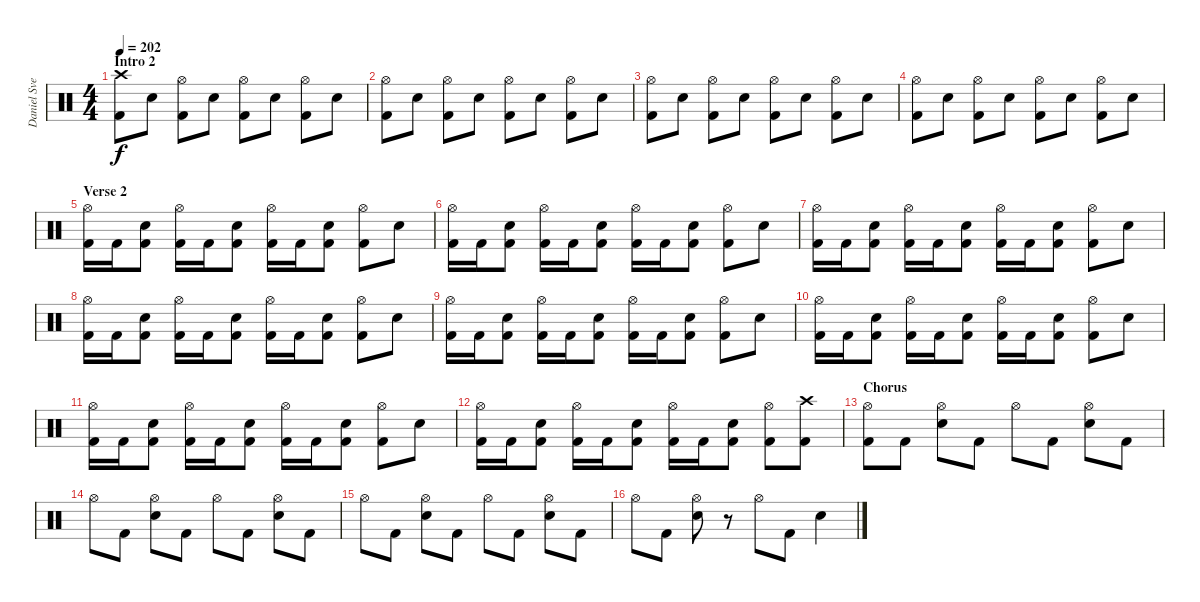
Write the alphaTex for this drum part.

\track ("Daniel Svensson" "Daniel Sve") {instrument percussion}
\staff {score}
\articulation defaults
\ts (4 4)
\section ("" "Intro 2")
\tempo 202
\clef neutral
\ks c
("Crash high (hit)" "Kick (hit) 2").8{dy f} "Electric Snare (hit)".8 ("Hi-Hat (open)" "Kick (hit) 2").8 "Electric Snare (hit)".8 ("Hi-Hat (open)" "Kick (hit) 2").8 "Electric Snare (hit)".8 ("Hi-Hat (open)" "Kick (hit) 2").8 "Electric Snare (hit)".8 |
("Hi-Hat (open)" "Kick (hit) 2").8 "Electric Snare (hit)".8 ("Hi-Hat (open)" "Kick (hit) 2").8 "Electric Snare (hit)".8 ("Hi-Hat (open)" "Kick (hit) 2").8 "Electric Snare (hit)".8 ("Hi-Hat (open)" "Kick (hit) 2").8 "Electric Snare (hit)".8 |
("Hi-Hat (open)" "Kick (hit) 2").8 "Electric Snare (hit)".8 ("Hi-Hat (open)" "Kick (hit) 2").8 "Electric Snare (hit)".8 ("Hi-Hat (open)" "Kick (hit) 2").8 "Electric Snare (hit)".8 ("Hi-Hat (open)" "Kick (hit) 2").8 "Electric Snare (hit)".8 |
("Hi-Hat (open)" "Kick (hit) 2").8 "Electric Snare (hit)".8 ("Hi-Hat (open)" "Kick (hit) 2").8 "Electric Snare (hit)".8 ("Hi-Hat (open)" "Kick (hit) 2").8 "Electric Snare (hit)".8 ("Hi-Hat (open)" "Kick (hit) 2").8 "Electric Snare (hit)".8 |
\section ("" "Verse 2")
("Hi-Hat (open)" "Kick (hit) 2").16 "Kick (hit) 2".16 ("Electric Snare (hit)" "Kick (hit) 2").8 ("Hi-Hat (open)" "Kick (hit) 2").16 "Kick (hit) 2".16 ("Electric Snare (hit)" "Kick (hit) 2").8 ("Hi-Hat (open)" "Kick (hit) 2").16 "Kick (hit) 2".16 ("Electric Snare (hit)" "Kick (hit) 2").8 ("Hi-Hat (open)" "Kick (hit) 2").8 "Electric Snare (hit)".8 |
("Hi-Hat (open)" "Kick (hit) 2").16 "Kick (hit) 2".16 ("Electric Snare (hit)" "Kick (hit) 2").8 ("Hi-Hat (open)" "Kick (hit) 2").16 "Kick (hit) 2".16 ("Electric Snare (hit)" "Kick (hit) 2").8 ("Hi-Hat (open)" "Kick (hit) 2").16 "Kick (hit) 2".16 ("Electric Snare (hit)" "Kick (hit) 2").8 ("Hi-Hat (open)" "Kick (hit) 2").8 "Electric Snare (hit)".8 |
("Hi-Hat (open)" "Kick (hit) 2").16 "Kick (hit) 2".16 ("Electric Snare (hit)" "Kick (hit) 2").8 ("Hi-Hat (open)" "Kick (hit) 2").16 "Kick (hit) 2".16 ("Electric Snare (hit)" "Kick (hit) 2").8 ("Hi-Hat (open)" "Kick (hit) 2").16 "Kick (hit) 2".16 ("Electric Snare (hit)" "Kick (hit) 2").8 ("Hi-Hat (open)" "Kick (hit) 2").8 "Electric Snare (hit)".8 |
("Hi-Hat (open)" "Kick (hit) 2").16 "Kick (hit) 2".16 ("Electric Snare (hit)" "Kick (hit) 2").8 ("Hi-Hat (open)" "Kick (hit) 2").16 "Kick (hit) 2".16 ("Electric Snare (hit)" "Kick (hit) 2").8 ("Hi-Hat (open)" "Kick (hit) 2").16 "Kick (hit) 2".16 ("Electric Snare (hit)" "Kick (hit) 2").8 ("Hi-Hat (open)" "Kick (hit) 2").8 "Electric Snare (hit)".8 |
("Hi-Hat (open)" "Kick (hit) 2").16 "Kick (hit) 2".16 ("Electric Snare (hit)" "Kick (hit) 2").8 ("Hi-Hat (open)" "Kick (hit) 2").16 "Kick (hit) 2".16 ("Electric Snare (hit)" "Kick (hit) 2").8 ("Hi-Hat (open)" "Kick (hit) 2").16 "Kick (hit) 2".16 ("Electric Snare (hit)" "Kick (hit) 2").8 ("Hi-Hat (open)" "Kick (hit) 2").8 "Electric Snare (hit)".8 |
("Hi-Hat (open)" "Kick (hit) 2").16 "Kick (hit) 2".16 ("Electric Snare (hit)" "Kick (hit) 2").8 ("Hi-Hat (open)" "Kick (hit) 2").16 "Kick (hit) 2".16 ("Electric Snare (hit)" "Kick (hit) 2").8 ("Hi-Hat (open)" "Kick (hit) 2").16 "Kick (hit) 2".16 ("Electric Snare (hit)" "Kick (hit) 2").8 ("Hi-Hat (open)" "Kick (hit) 2").8 "Electric Snare (hit)".8 |
("Hi-Hat (open)" "Kick (hit) 2").16 "Kick (hit) 2".16 ("Electric Snare (hit)" "Kick (hit) 2").8 ("Hi-Hat (open)" "Kick (hit) 2").16 "Kick (hit) 2".16 ("Electric Snare (hit)" "Kick (hit) 2").8 ("Hi-Hat (open)" "Kick (hit) 2").16 "Kick (hit) 2".16 ("Electric Snare (hit)" "Kick (hit) 2").8 ("Hi-Hat (open)" "Kick (hit) 2").8 "Electric Snare (hit)".8 |
("Hi-Hat (open)" "Kick (hit) 2").16 "Kick (hit) 2".16 ("Electric Snare (hit)" "Kick (hit) 2").8 ("Hi-Hat (open)" "Kick (hit) 2").16 "Kick (hit) 2".16 ("Electric Snare (hit)" "Kick (hit) 2").8 ("Hi-Hat (open)" "Kick (hit) 2").16 "Kick (hit) 2".16 ("Electric Snare (hit)" "Kick (hit) 2").8 ("Hi-Hat (open)" "Kick (hit) 2").8 ("Crash high (hit)" "Kick (hit) 2").8 |
\section ("" "Chorus")
("Hi-Hat (open)" "Kick (hit) 2").8 "Kick (hit) 2".8 ("Hi-Hat (open)" "Electric Snare (hit)").8 "Kick (hit) 2".8 "Hi-Hat (open)".8 "Kick (hit) 2".8 ("Hi-Hat (open)" "Electric Snare (hit)").8 "Kick (hit) 2".8 |
"Hi-Hat (open)".8 "Kick (hit) 2".8 ("Hi-Hat (open)" "Electric Snare (hit)").8 "Kick (hit) 2".8 "Hi-Hat (open)".8 "Kick (hit) 2".8 ("Hi-Hat (open)" "Electric Snare (hit)").8 "Kick (hit) 2".8 |
"Hi-Hat (open)".8 "Kick (hit) 2".8 ("Hi-Hat (open)" "Electric Snare (hit)").8 "Kick (hit) 2".8 "Hi-Hat (open)".8 "Kick (hit) 2".8 ("Hi-Hat (open)" "Electric Snare (hit)").8 "Kick (hit) 2".8 |
"Hi-Hat (open)".8 "Kick (hit) 2".8 ("Hi-Hat (open)" "Electric Snare (hit)").8 r.8 "Hi-Hat (open)".8 "Kick (hit) 2".8 "Electric Snare (hit)".4
